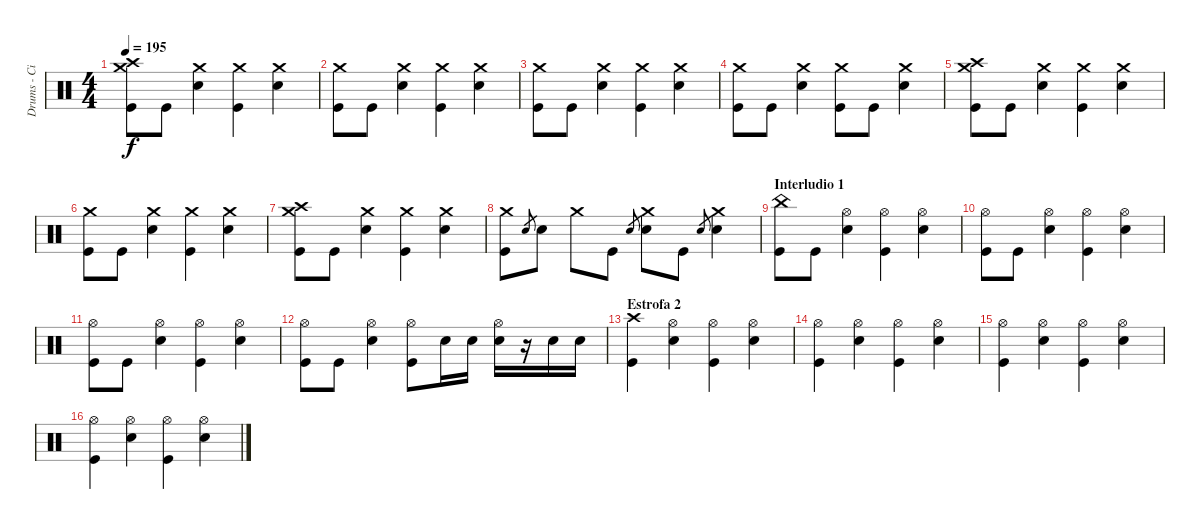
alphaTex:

\track ("Drums - Ciro" "Drums - Ci") {instrument percussion}
\staff {score}
\articulation defaults
\ts (4 4)
\tempo 195
\clef neutral
\ks c
("Crash medium (hit)" "Crash high (hit)" "Kick (hit)").8{dy f} "Kick (hit)".8 ("Crash medium (hit)" "Electric Snare (hit)").4 ("Crash medium (hit)" "Kick (hit)").4 ("Crash medium (hit)" "Electric Snare (hit)").4 |
("Crash medium (hit)" "Kick (hit)").8 "Kick (hit)".8 ("Crash medium (hit)" "Electric Snare (hit)").4 ("Crash medium (hit)" "Kick (hit)").4 ("Crash medium (hit)" "Electric Snare (hit)").4 |
("Crash medium (hit)" "Kick (hit)").8 "Kick (hit)".8 ("Crash medium (hit)" "Electric Snare (hit)").4 ("Crash medium (hit)" "Kick (hit)").4 ("Crash medium (hit)" "Electric Snare (hit)").4 |
("Crash medium (hit)" "Kick (hit)").8 "Kick (hit)".8 ("Crash medium (hit)" "Electric Snare (hit)").4 ("Crash medium (hit)" "Kick (hit)").8 "Kick (hit)".8 ("Crash medium (hit)" "Electric Snare (hit)").4 |
("Crash medium (hit)" "Crash high (hit)" "Kick (hit)").8 "Kick (hit)".8 ("Crash medium (hit)" "Electric Snare (hit)").4 ("Crash medium (hit)" "Kick (hit)").4 ("Crash medium (hit)" "Electric Snare (hit)").4 |
("Crash medium (hit)" "Kick (hit)").8 "Kick (hit)".8 ("Crash medium (hit)" "Electric Snare (hit)").4 ("Crash medium (hit)" "Kick (hit)").4 ("Crash medium (hit)" "Electric Snare (hit)").4 |
("Crash medium (hit)" "Crash high (hit)" "Kick (hit)").8 "Kick (hit)".8 ("Crash medium (hit)" "Electric Snare (hit)").4 ("Crash medium (hit)" "Kick (hit)").4 ("Crash medium (hit)" "Electric Snare (hit)").4 |
("Crash medium (hit)" "Kick (hit)").8 "Electric Snare (hit)".8{gr} "Electric Snare (hit)".8 "Crash medium (hit)".8 "Kick (hit)".8 "Electric Snare (hit)".8{gr} ("Crash medium (hit)" "Electric Snare (hit)").8 "Kick (hit)".8 "Electric Snare (hit)".8{gr} ("Crash medium (hit)" "Electric Snare (hit)").4 |
\section ("" "Interludio 1")
("China (hit)" "Kick (hit)").8 "Kick (hit)".8 ("Hi-Hat (open)" "Electric Snare (hit)").4 ("Hi-Hat (open)" "Kick (hit)").4 ("Hi-Hat (open)" "Electric Snare (hit)").4 |
("Hi-Hat (open)" "Kick (hit)").8 "Kick (hit)".8 ("Hi-Hat (open)" "Electric Snare (hit)").4 ("Hi-Hat (open)" "Kick (hit)").4 ("Hi-Hat (open)" "Electric Snare (hit)").4 |
("Hi-Hat (open)" "Kick (hit)").8 "Kick (hit)".8 ("Hi-Hat (open)" "Electric Snare (hit)").4 ("Hi-Hat (open)" "Kick (hit)").4 ("Hi-Hat (open)" "Electric Snare (hit)").4 |
("Hi-Hat (open)" "Kick (hit)").8 "Kick (hit)".8 ("Hi-Hat (open)" "Electric Snare (hit)").4 ("Hi-Hat (open)" "Kick (hit)").8 "Electric Snare (hit)".16 "Electric Snare (hit)".16 ("Hi-Hat (open)" "Electric Snare (hit)").16 r.16 "Electric Snare (hit)".16 "Electric Snare (hit)".16 |
\section ("" "Estrofa 2")
("Crash high (hit)" "Kick (hit)").4 ("Hi-Hat (open)" "Electric Snare (hit)").4 ("Hi-Hat (open)" "Kick (hit)").4 ("Hi-Hat (open)" "Electric Snare (hit)").4 |
("Hi-Hat (open)" "Kick (hit)").4 ("Hi-Hat (open)" "Electric Snare (hit)").4 ("Hi-Hat (open)" "Kick (hit)").4 ("Hi-Hat (open)" "Electric Snare (hit)").4 |
("Hi-Hat (open)" "Kick (hit)").4 ("Hi-Hat (open)" "Electric Snare (hit)").4 ("Hi-Hat (open)" "Kick (hit)").4 ("Hi-Hat (open)" "Electric Snare (hit)").4 |
("Hi-Hat (open)" "Kick (hit)").4 ("Hi-Hat (open)" "Electric Snare (hit)").4 ("Hi-Hat (open)" "Kick (hit)").4 ("Hi-Hat (open)" "Electric Snare (hit)").4
